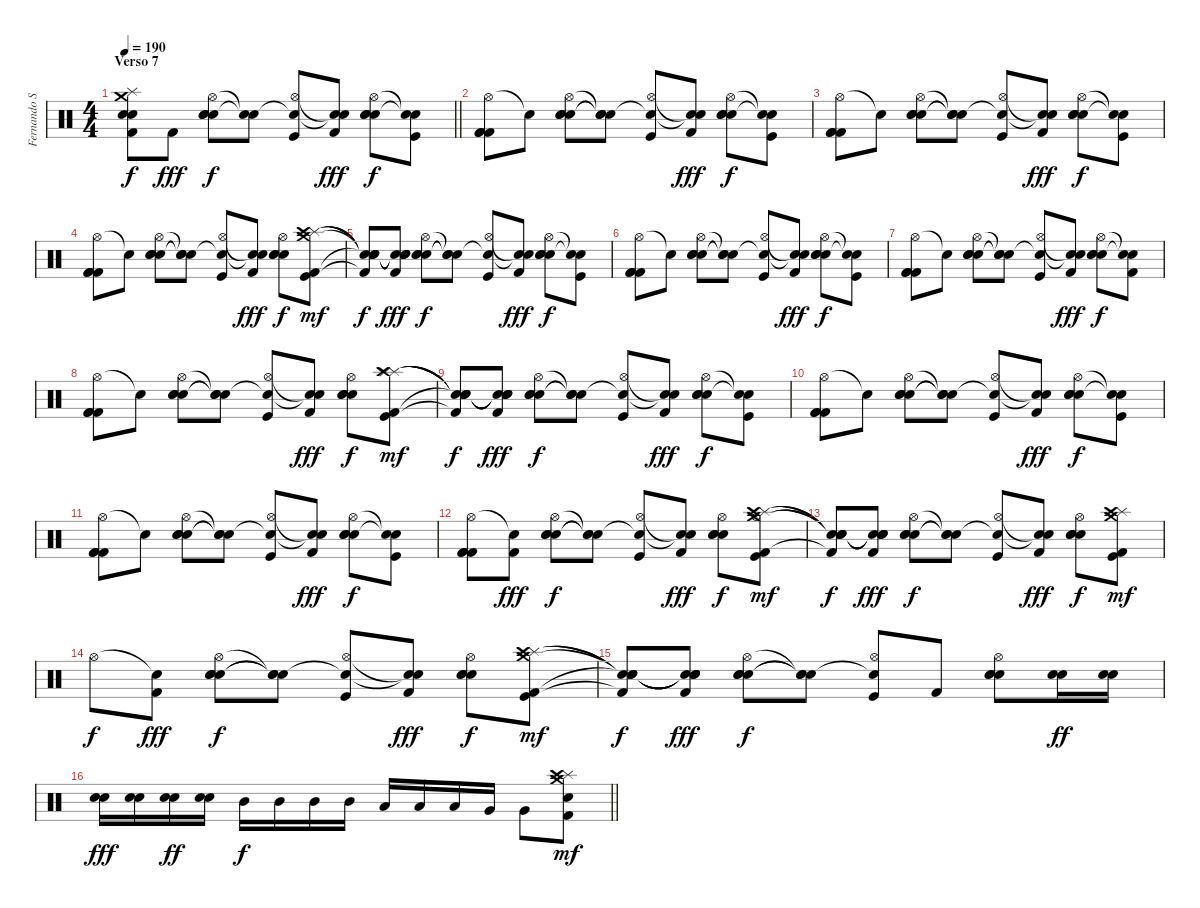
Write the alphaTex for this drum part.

\track ("Fernando Scarcella" "Fernando S") {instrument percussion}
\staff {score}
\articulation defaults
\ts (4 4)
\section ("" "Verso 7")
\tempo 190
\clef neutral
\barLineRight lightlight
\ks c
("Crash medium (hit)"{t} "Splash (hit)"{t} "Snare (hit)"{t} "Snare (hit)"{t} "Kick (hit) 2"{t}).8{dy f} "Kick (hit) 2".8{dy fff} ("Hi-Hat (open)" "Electric Snare (hit)" "Electric Snare (hit)" "Electric Snare (hit)").8{dy f} ("Snare (hit)"{t} "Snare (hit)"{t}).8 ("Hi-Hat (open)" "Snare (hit)"{t} "Kick (hit)").8 ("Snare (hit)"{t} "Snare (hit)"{t} "Kick (hit) 2").8{dy fff} ("Hi-Hat (open)" "Electric Snare (hit)" "Electric Snare (hit)" "Electric Snare (hit)").8{dy f} ("Snare (hit)"{t} "Snare (hit)"{t} "Kick (hit)").8 |
("Hi-Hat (open)" "Kick (hit) 2" "Kick (hit) 2" "Kick (hit) 2").8 "Snare (hit)"{t}.8 ("Hi-Hat (open)" "Electric Snare (hit)" "Electric Snare (hit)" "Electric Snare (hit)").8 ("Snare (hit)"{t} "Snare (hit)"{t} "Snare (hit)"{t}).8 ("Hi-Hat (open)" "Snare (hit)"{t} "Kick (hit)").8 ("Snare (hit)"{t} "Snare (hit)"{t} "Kick (hit) 2").8{dy fff} ("Hi-Hat (open)" "Electric Snare (hit)" "Electric Snare (hit)" "Electric Snare (hit)").8{dy f} ("Snare (hit)"{t} "Snare (hit)"{t} "Kick (hit)").8 |
("Hi-Hat (open)" "Kick (hit) 2" "Kick (hit) 2" "Kick (hit) 2").8 "Snare (hit)"{t}.8 ("Hi-Hat (open)" "Electric Snare (hit)" "Electric Snare (hit)" "Electric Snare (hit)").8 ("Snare (hit)"{t} "Snare (hit)"{t} "Snare (hit)"{t}).8 ("Hi-Hat (open)" "Snare (hit)"{t} "Kick (hit)").8 ("Snare (hit)"{t} "Snare (hit)"{t} "Kick (hit) 2").8{dy fff} ("Hi-Hat (open)" "Electric Snare (hit)" "Electric Snare (hit)" "Electric Snare (hit)").8{dy f} ("Snare (hit)"{t} "Snare (hit)"{t} "Kick (hit)").8 |
("Hi-Hat (open)" "Kick (hit) 2" "Kick (hit) 2" "Kick (hit) 2").8 "Snare (hit)"{t}.8 ("Hi-Hat (open)" "Electric Snare (hit)" "Electric Snare (hit)" "Electric Snare (hit)").8 ("Snare (hit)"{t} "Snare (hit)"{t} "Snare (hit)"{t}).8 ("Hi-Hat (open)" "Snare (hit)"{t} "Kick (hit)").8 ("Snare (hit)"{t} "Snare (hit)"{t} "Kick (hit) 2").8{dy fff} ("Hi-Hat (open)" "Electric Snare (hit)" "Electric Snare (hit)" "Electric Snare (hit)").8{dy f} ("Crash medium (hit)" "Splash (hit)" "Crash high (hit)" "Kick (hit) 2" "Kick (hit)").8{dy mf} |
("Snare (hit)"{t} "Snare (hit)"{t} "Snare (hit)"{t} "Snare (hit)"{t} "Kick (hit) 2"{t}).8{dy f} ("Snare (hit)"{t} "Snare (hit)"{t} "Snare (hit)"{t} "Snare (hit)"{t} "Kick (hit) 2").8{dy fff} ("Hi-Hat (open)" "Electric Snare (hit)" "Electric Snare (hit)" "Electric Snare (hit)").8{dy f} ("Snare (hit)"{t} "Snare (hit)"{t} "Snare (hit)"{t}).8 ("Hi-Hat (open)" "Snare (hit)"{t} "Kick (hit)").8 ("Snare (hit)"{t} "Snare (hit)"{t} "Kick (hit) 2").8{dy fff} ("Hi-Hat (open)" "Electric Snare (hit)" "Electric Snare (hit)" "Electric Snare (hit)").8{dy f} ("Snare (hit)"{t} "Snare (hit)"{t} "Kick (hit)").8 |
("Hi-Hat (open)" "Kick (hit) 2" "Kick (hit) 2" "Kick (hit) 2").8 "Snare (hit)"{t}.8 ("Hi-Hat (open)" "Electric Snare (hit)" "Electric Snare (hit)" "Electric Snare (hit)").8 ("Snare (hit)"{t} "Snare (hit)"{t} "Snare (hit)"{t}).8 ("Hi-Hat (open)" "Snare (hit)"{t} "Kick (hit)").8 ("Snare (hit)"{t} "Snare (hit)"{t} "Kick (hit) 2").8{dy fff} ("Hi-Hat (open)" "Electric Snare (hit)" "Electric Snare (hit)" "Electric Snare (hit)").8{dy f} ("Snare (hit)"{t} "Snare (hit)"{t} "Kick (hit)").8 |
("Hi-Hat (open)" "Kick (hit) 2" "Kick (hit) 2" "Kick (hit) 2").8 "Snare (hit)"{t}.8 ("Hi-Hat (open)" "Electric Snare (hit)" "Electric Snare (hit)" "Electric Snare (hit)").8 ("Snare (hit)"{t} "Snare (hit)"{t} "Snare (hit)"{t}).8 ("Hi-Hat (open)" "Snare (hit)"{t} "Kick (hit)").8 ("Snare (hit)"{t} "Snare (hit)"{t} "Kick (hit) 2").8{dy fff} ("Hi-Hat (open)" "Electric Snare (hit)" "Electric Snare (hit)" "Electric Snare (hit)").8{dy f} ("Snare (hit)"{t} "Snare (hit)"{t} "Kick (hit) 2").8 |
("Hi-Hat (open)" "Kick (hit) 2" "Kick (hit) 2" "Kick (hit) 2").8 "Snare (hit)"{t}.8 ("Hi-Hat (open)" "Electric Snare (hit)" "Electric Snare (hit)" "Electric Snare (hit)").8 ("Snare (hit)"{t} "Snare (hit)"{t} "Snare (hit)"{t}).8 ("Hi-Hat (open)" "Snare (hit)"{t} "Kick (hit)").8 ("Snare (hit)"{t} "Snare (hit)"{t} "Kick (hit) 2").8{dy fff} ("Hi-Hat (open)" "Electric Snare (hit)" "Electric Snare (hit)" "Electric Snare (hit)").8{dy f} ("Splash (hit)" "Splash (hit)" "Crash high (hit)" "Kick (hit) 2" "Kick (hit)").8{dy mf} |
("Snare (hit)"{t} "Snare (hit)"{t} "Snare (hit)"{t} "Snare (hit)"{t} "Kick (hit) 2"{t}).8{dy f} ("Snare (hit)"{t} "Snare (hit)"{t} "Snare (hit)"{t} "Snare (hit)"{t} "Kick (hit) 2").8{dy fff} ("Hi-Hat (open)" "Electric Snare (hit)" "Electric Snare (hit)" "Electric Snare (hit)").8{dy f} ("Snare (hit)"{t} "Snare (hit)"{t} "Snare (hit)"{t}).8 ("Hi-Hat (open)" "Snare (hit)"{t} "Kick (hit)").8 ("Snare (hit)"{t} "Snare (hit)"{t} "Kick (hit) 2").8{dy fff} ("Hi-Hat (open)" "Electric Snare (hit)" "Electric Snare (hit)" "Electric Snare (hit)").8{dy f} ("Snare (hit)"{t} "Snare (hit)"{t} "Kick (hit)").8 |
("Hi-Hat (open)" "Kick (hit) 2" "Kick (hit) 2" "Kick (hit) 2").8 "Snare (hit)"{t}.8 ("Hi-Hat (open)" "Electric Snare (hit)" "Electric Snare (hit)" "Electric Snare (hit)").8 ("Snare (hit)"{t} "Snare (hit)"{t} "Snare (hit)"{t}).8 ("Hi-Hat (open)" "Snare (hit)"{t} "Kick (hit)").8 ("Snare (hit)"{t} "Snare (hit)"{t} "Kick (hit) 2").8{dy fff} ("Hi-Hat (open)" "Electric Snare (hit)" "Electric Snare (hit)" "Electric Snare (hit)").8{dy f} ("Snare (hit)"{t} "Snare (hit)"{t} "Kick (hit)").8 |
("Hi-Hat (open)" "Kick (hit) 2" "Kick (hit) 2" "Kick (hit) 2").8 "Snare (hit)"{t}.8 ("Hi-Hat (open)" "Electric Snare (hit)" "Electric Snare (hit)" "Electric Snare (hit)").8 ("Snare (hit)"{t} "Snare (hit)"{t} "Snare (hit)"{t}).8 ("Hi-Hat (open)" "Snare (hit)"{t} "Kick (hit)").8 ("Snare (hit)"{t} "Snare (hit)"{t} "Kick (hit) 2").8{dy fff} ("Hi-Hat (open)" "Electric Snare (hit)" "Electric Snare (hit)" "Electric Snare (hit)").8{dy f} ("Snare (hit)"{t} "Snare (hit)"{t} "Kick (hit)").8 |
("Hi-Hat (open)" "Kick (hit) 2" "Kick (hit) 2" "Kick (hit) 2").8 ("Snare (hit)"{t} "Kick (hit) 2").8{dy fff} ("Hi-Hat (open)" "Electric Snare (hit)" "Electric Snare (hit)" "Electric Snare (hit)").8{dy f} ("Snare (hit)"{t} "Snare (hit)"{t} "Snare (hit)"{t}).8 ("Hi-Hat (open)" "Snare (hit)"{t} "Kick (hit)").8 ("Snare (hit)"{t} "Snare (hit)"{t} "Kick (hit) 2").8{dy fff} ("Hi-Hat (open)" "Electric Snare (hit)" "Electric Snare (hit)" "Electric Snare (hit)").8{dy f} ("Crash medium (hit)" "Splash (hit)" "Hi-Hat (open)" "Crash high (hit)" "Kick (hit) 2" "Kick (hit)").8{dy mf} |
("Snare (hit)"{t} "Snare (hit)"{t} "Snare (hit)"{t} "Snare (hit)"{t} "Kick (hit) 2"{t}).8{dy f} ("Snare (hit)"{t} "Snare (hit)"{t} "Snare (hit)"{t} "Snare (hit)"{t} "Kick (hit) 2").8{dy fff} ("Hi-Hat (open)" "Electric Snare (hit)" "Electric Snare (hit)" "Electric Snare (hit)").8{dy f} ("Snare (hit)"{t} "Snare (hit)"{t} "Snare (hit)"{t}).8 ("Hi-Hat (open)" "Snare (hit)"{t} "Kick (hit)").8 ("Snare (hit)"{t} "Snare (hit)"{t} "Kick (hit) 2").8{dy fff} ("Hi-Hat (open)" "Electric Snare (hit)" "Electric Snare (hit)" "Electric Snare (hit)").8{dy f} ("Crash medium (hit)" "Splash (hit)" "Crash high (hit)" "Kick (hit) 2" "Kick (hit)").8{dy mf} |
"Hi-Hat (open)".8{dy f} ("Snare (hit)"{t} "Kick (hit) 2").8{dy fff} ("Hi-Hat (open)" "Electric Snare (hit)" "Electric Snare (hit)" "Electric Snare (hit)").8{dy f} ("Snare (hit)"{t} "Snare (hit)"{t} "Snare (hit)"{t}).8 ("Hi-Hat (open)" "Snare (hit)"{t} "Kick (hit)").8 ("Snare (hit)"{t} "Snare (hit)"{t} "Kick (hit) 2").8{dy fff} ("Hi-Hat (open)" "Electric Snare (hit)" "Electric Snare (hit)" "Electric Snare (hit)").8{dy f} ("Crash medium (hit)" "Splash (hit)" "Crash high (hit)" "Kick (hit) 2" "Kick (hit)").8{dy mf} |
("Snare (hit)"{t} "Snare (hit)"{t} "Snare (hit)"{t} "Snare (hit)"{t} "Kick (hit) 2"{t}).8{dy f} ("Snare (hit)"{t} "Snare (hit)"{t} "Snare (hit)"{t} "Snare (hit)"{t} "Kick (hit) 2").8{dy fff} ("Hi-Hat (open)" "Electric Snare (hit)" "Electric Snare (hit)" "Electric Snare (hit)").8{dy f} ("Snare (hit)"{t} "Snare (hit)"{t} "Snare (hit)"{t}).8 ("Hi-Hat (open)" "Snare (hit)"{t} "Kick (hit)").8 "Kick (hit) 2".8 ("Hi-Hat (open)" "Electric Snare (hit)" "Electric Snare (hit)" "Electric Snare (hit)").8 ("Electric Snare (hit)" "Electric Snare (hit)").16{dy ff} ("Electric Snare (hit)" "Electric Snare (hit)").16 |
\barLineRight lightlight
("Electric Snare (hit)" "Electric Snare (hit)").16{dy fff} ("Electric Snare (hit)" "Electric Snare (hit)").16 ("Electric Snare (hit)" "Electric Snare (hit)").16{dy ff} ("Electric Snare (hit)" "Electric Snare (hit)").16 "Mid Tom (hit)".16{dy f} "Mid Tom (hit)".16 "Mid Tom (hit)".16 "Mid Tom (hit)".16 "Low Tom (hit)".16 "Low Tom (hit)".16 "Low Tom (hit)".16 "Very Low Tom (hit)".16 "Very Low Tom (hit)".8 ("Crash medium (hit)" "Splash (hit)" "Crash high (hit)" "Kick (hit) 2" "Snare (hit)").8{dy mf}
